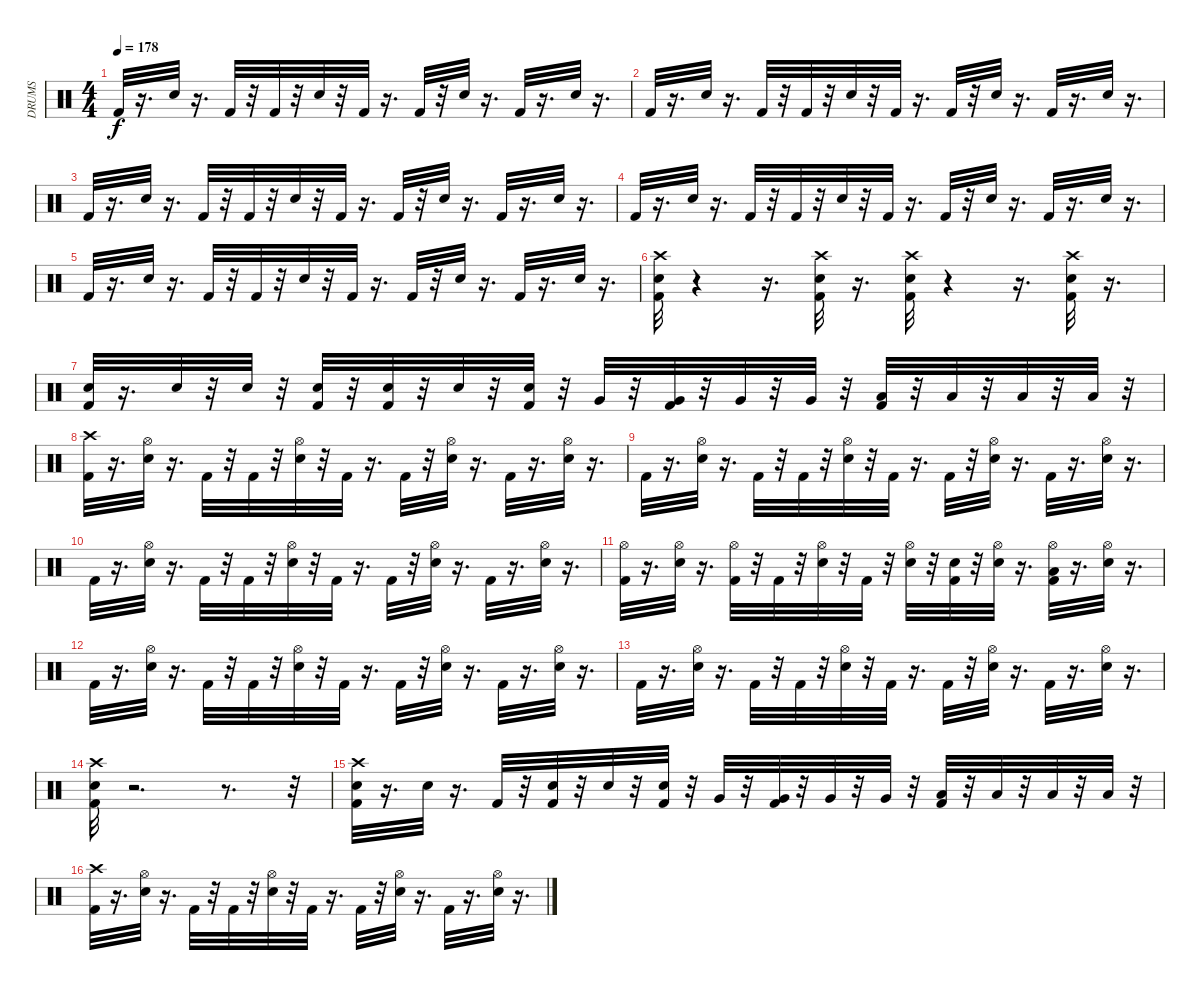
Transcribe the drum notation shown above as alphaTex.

\track ("DRUMS" "DRUMS") {instrument percussion}
\staff {score}
\articulation defaults
\ts (4 4)
\tempo 178
\clef neutral
\ks c "Kick (hit) 2".32{dy f}
r.16{d} "Electric Snare (hit)".32 r.16{d} "Kick (hit) 2".32 r.32 "Kick (hit) 2".32 r.32 "Electric Snare (hit)".32 r.32 "Kick (hit) 2".32 r.16{d} "Kick (hit) 2".32 r.32 "Electric Snare (hit)".32 r.16{d} "Kick (hit) 2".32 r.16{d} "Electric Snare (hit)".32 r.16{d} |
"Kick (hit) 2".32 r.16{d} "Electric Snare (hit)".32 r.16{d} "Kick (hit) 2".32 r.32 "Kick (hit) 2".32 r.32 "Electric Snare (hit)".32 r.32 "Kick (hit) 2".32 r.16{d} "Kick (hit) 2".32 r.32 "Electric Snare (hit)".32 r.16{d} "Kick (hit) 2".32 r.16{d} "Electric Snare (hit)".32 r.16{d} |
"Kick (hit) 2".32 r.16{d} "Electric Snare (hit)".32 r.16{d} "Kick (hit) 2".32 r.32 "Kick (hit) 2".32 r.32 "Electric Snare (hit)".32 r.32 "Kick (hit) 2".32 r.16{d} "Kick (hit) 2".32 r.32 "Electric Snare (hit)".32 r.16{d} "Kick (hit) 2".32 r.16{d} "Electric Snare (hit)".32 r.16{d} |
"Kick (hit) 2".32 r.16{d} "Electric Snare (hit)".32 r.16{d} "Kick (hit) 2".32 r.32 "Kick (hit) 2".32 r.32 "Electric Snare (hit)".32 r.32 "Kick (hit) 2".32 r.16{d} "Kick (hit) 2".32 r.32 "Electric Snare (hit)".32 r.16{d} "Kick (hit) 2".32 r.16{d} "Electric Snare (hit)".32 r.16{d} |
"Kick (hit) 2".32 r.16{d} "Electric Snare (hit)".32 r.16{d} "Kick (hit) 2".32 r.32 "Kick (hit) 2".32 r.32 "Electric Snare (hit)".32 r.32 "Kick (hit) 2".32 r.16{d} "Kick (hit) 2".32 r.32 "Electric Snare (hit)".32 r.16{d} "Kick (hit) 2".32 r.16{d} "Electric Snare (hit)".32 r.16{d} |
("Kick (hit) 2" "Electric Snare (hit)" "Crash high (hit)").32 r.4 r.16{d} ("Electric Snare (hit)" "Kick (hit) 2" "Crash high (hit)").32 r.16{d} ("Electric Snare (hit)" "Kick (hit) 2" "Crash high (hit)").32 r.4 r.16{d} ("Electric Snare (hit)" "Kick (hit) 2" "Crash high (hit)").32 r.16{d} |
("Kick (hit) 2" "Electric Snare (hit)").32 r.16{d} "Electric Snare (hit)".32 r.32 "Electric Snare (hit)".32 r.32 ("Kick (hit) 2" "Electric Snare (hit)").32 r.32 ("Kick (hit) 2" "Electric Snare (hit)").32 r.32 "Electric Snare (hit)".32 r.32 ("Kick (hit) 2" "Electric Snare (hit)").32 r.32 "Very Low Tom (hit)".32 r.32 ("Kick (hit) 2" "Very Low Tom (hit)").32 r.32 "Very Low Tom (hit)".32 r.32 "Very Low Tom (hit)".32 r.32 ("Kick (hit) 2" "Low Floor Tom (hit)").32 r.32 "Low Floor Tom (hit)".32 r.32 "Low Floor Tom (hit)".32 r.32 "Low Floor Tom (hit)".32 r.32 |
("Kick (hit) 2" "Crash high (hit)").32 r.16{d} ("Electric Snare (hit)" "Hi-Hat (open)").32 r.16{d} "Kick (hit) 2".32 r.32 "Kick (hit) 2".32 r.32 ("Electric Snare (hit)" "Hi-Hat (open)").32 r.32 "Kick (hit) 2".32 r.16{d} "Kick (hit) 2".32 r.32 ("Electric Snare (hit)" "Hi-Hat (open)").32 r.16{d} "Kick (hit) 2".32 r.16{d} ("Electric Snare (hit)" "Hi-Hat (open)").32 r.16{d} |
"Kick (hit) 2".32 r.16{d} ("Electric Snare (hit)" "Hi-Hat (open)").32 r.16{d} "Kick (hit) 2".32 r.32 "Kick (hit) 2".32 r.32 ("Electric Snare (hit)" "Hi-Hat (open)").32 r.32 "Kick (hit) 2".32 r.16{d} "Kick (hit) 2".32 r.32 ("Electric Snare (hit)" "Hi-Hat (open)").32 r.16{d} "Kick (hit) 2".32 r.16{d} ("Electric Snare (hit)" "Hi-Hat (open)").32 r.16{d} |
"Kick (hit) 2".32 r.16{d} ("Electric Snare (hit)" "Hi-Hat (open)").32 r.16{d} "Kick (hit) 2".32 r.32 "Kick (hit) 2".32 r.32 ("Electric Snare (hit)" "Hi-Hat (open)").32 r.32 "Kick (hit) 2".32 r.16{d} "Kick (hit) 2".32 r.32 ("Electric Snare (hit)" "Hi-Hat (open)").32 r.16{d} "Kick (hit) 2".32 r.16{d} ("Electric Snare (hit)" "Hi-Hat (open)").32 r.16{d} |
("Kick (hit) 2" "Hi-Hat (open)").32 r.16{d} ("Hi-Hat (open)" "Electric Snare (hit)").32 r.16{d} ("Kick (hit) 2" "Hi-Hat (open)").32 r.32 "Kick (hit) 2".32 r.32 ("Hi-Hat (open)" "Electric Snare (hit)").32 r.32 "Kick (hit) 2".32 r.32 ("Hi-Hat (open)" "Electric Snare (hit)").32 r.32 ("Kick (hit) 2" "Electric Snare (hit)").32 r.32 ("Hi-Hat (open)" "Electric Snare (hit)").32 r.16{d} ("Kick (hit) 2" "Hi-Hat (open)" "Low Floor Tom (hit)").32 r.16{d} ("Electric Snare (hit)" "Hi-Hat (open)").32 r.16{d} |
"Kick (hit) 2".32 r.16{d} ("Electric Snare (hit)" "Hi-Hat (open)").32 r.16{d} "Kick (hit) 2".32 r.32 "Kick (hit) 2".32 r.32 ("Electric Snare (hit)" "Hi-Hat (open)").32 r.32 "Kick (hit) 2".32 r.16{d} "Kick (hit) 2".32 r.32 ("Electric Snare (hit)" "Hi-Hat (open)").32 r.16{d} "Kick (hit) 2".32 r.16{d} ("Electric Snare (hit)" "Hi-Hat (open)").32 r.16{d} |
"Kick (hit) 2".32 r.16{d} ("Electric Snare (hit)" "Hi-Hat (open)").32 r.16{d} "Kick (hit) 2".32 r.32 "Kick (hit) 2".32 r.32 ("Electric Snare (hit)" "Hi-Hat (open)").32 r.32 "Kick (hit) 2".32 r.16{d} "Kick (hit) 2".32 r.32 ("Electric Snare (hit)" "Hi-Hat (open)").32 r.16{d} "Kick (hit) 2".32 r.16{d} ("Electric Snare (hit)" "Hi-Hat (open)").32 r.16{d} |
("Crash high (hit)" "Kick (hit) 2" "Electric Snare (hit)").32 r.2{d} r.8{d} r.32 |
("Kick (hit) 2" "Electric Snare (hit)" "Crash high (hit)").32 r.16{d} "Electric Snare (hit)".32 r.16{d} "Kick (hit) 2".32 r.32 ("Kick (hit) 2" "Electric Snare (hit)").32 r.32 "Electric Snare (hit)".32 r.32 ("Kick (hit) 2" "Electric Snare (hit)").32 r.32 "Very Low Tom (hit)".32 r.32 ("Kick (hit) 2" "Very Low Tom (hit)").32 r.32 "Very Low Tom (hit)".32 r.32 "Very Low Tom (hit)".32 r.32 ("Kick (hit) 2" "Low Floor Tom (hit)").32 r.32 "Low Floor Tom (hit)".32 r.32 "Low Floor Tom (hit)".32 r.32 "Low Floor Tom (hit)".32 r.32 |
("Kick (hit) 2" "Crash high (hit)").32 r.16{d} ("Electric Snare (hit)" "Hi-Hat (open)").32 r.16{d} "Kick (hit) 2".32 r.32 "Kick (hit) 2".32 r.32 ("Electric Snare (hit)" "Hi-Hat (open)").32 r.32 "Kick (hit) 2".32 r.16{d} "Kick (hit) 2".32 r.32 ("Electric Snare (hit)" "Hi-Hat (open)").32 r.16{d} "Kick (hit) 2".32 r.16{d} ("Electric Snare (hit)" "Hi-Hat (open)").32 r.16{d}
